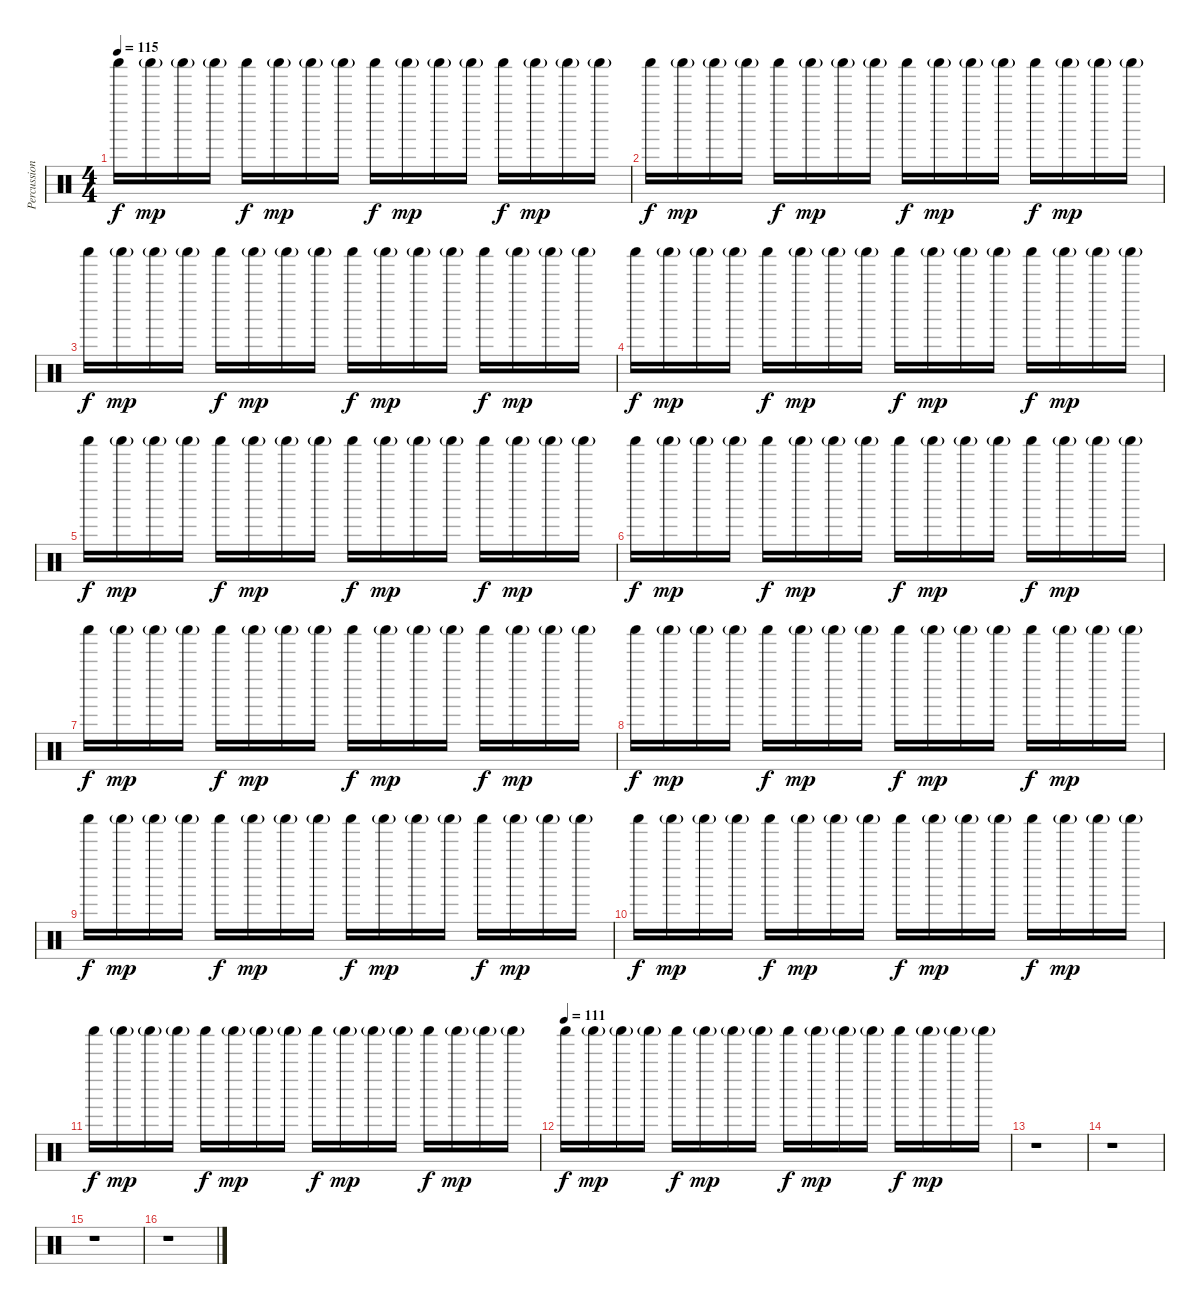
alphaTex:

\track ("PercussionShaker" "Percussion") {instrument percussion}
\staff {score}
\articulation defaults
\ts (4 4)
\tempo 115
\clef neutral
\ks c "Shaker (hit)".16{dy f} "Shaker (hit)"{g}.16{dy mp} "Shaker (hit)"{g}.16 "Shaker (hit)"{g}.16 "Shaker (hit)".16{dy f} "Shaker (hit)"{g}.16{dy mp} "Shaker (hit)"{g}.16 "Shaker (hit)"{g}.16 "Shaker (hit)".16{dy f} "Shaker (hit)"{g}.16{dy mp} "Shaker (hit)"{g}.16 "Shaker (hit)"{g}.16 "Shaker (hit)".16{dy f} "Shaker (hit)"{g}.16{dy mp} "Shaker (hit)"{g}.16 "Shaker (hit)"{g}.16
|
"Shaker (hit)".16{dy f} "Shaker (hit)"{g}.16{dy mp} "Shaker (hit)"{g}.16 "Shaker (hit)"{g}.16 "Shaker (hit)".16{dy f} "Shaker (hit)"{g}.16{dy mp} "Shaker (hit)"{g}.16 "Shaker (hit)"{g}.16 "Shaker (hit)".16{dy f} "Shaker (hit)"{g}.16{dy mp} "Shaker (hit)"{g}.16 "Shaker (hit)"{g}.16 "Shaker (hit)".16{dy f} "Shaker (hit)"{g}.16{dy mp} "Shaker (hit)"{g}.16 "Shaker (hit)"{g}.16 |
"Shaker (hit)".16{dy f} "Shaker (hit)"{g}.16{dy mp} "Shaker (hit)"{g}.16 "Shaker (hit)"{g}.16 "Shaker (hit)".16{dy f} "Shaker (hit)"{g}.16{dy mp} "Shaker (hit)"{g}.16 "Shaker (hit)"{g}.16 "Shaker (hit)".16{dy f} "Shaker (hit)"{g}.16{dy mp} "Shaker (hit)"{g}.16 "Shaker (hit)"{g}.16 "Shaker (hit)".16{dy f} "Shaker (hit)"{g}.16{dy mp} "Shaker (hit)"{g}.16 "Shaker (hit)"{g}.16 |
"Shaker (hit)".16{dy f} "Shaker (hit)"{g}.16{dy mp} "Shaker (hit)"{g}.16 "Shaker (hit)"{g}.16 "Shaker (hit)".16{dy f} "Shaker (hit)"{g}.16{dy mp} "Shaker (hit)"{g}.16 "Shaker (hit)"{g}.16 "Shaker (hit)".16{dy f} "Shaker (hit)"{g}.16{dy mp} "Shaker (hit)"{g}.16 "Shaker (hit)"{g}.16 "Shaker (hit)".16{dy f} "Shaker (hit)"{g}.16{dy mp} "Shaker (hit)"{g}.16 "Shaker (hit)"{g}.16 |
"Shaker (hit)".16{dy f} "Shaker (hit)"{g}.16{dy mp} "Shaker (hit)"{g}.16 "Shaker (hit)"{g}.16 "Shaker (hit)".16{dy f} "Shaker (hit)"{g}.16{dy mp} "Shaker (hit)"{g}.16 "Shaker (hit)"{g}.16 "Shaker (hit)".16{dy f} "Shaker (hit)"{g}.16{dy mp} "Shaker (hit)"{g}.16 "Shaker (hit)"{g}.16 "Shaker (hit)".16{dy f} "Shaker (hit)"{g}.16{dy mp} "Shaker (hit)"{g}.16 "Shaker (hit)"{g}.16 |
"Shaker (hit)".16{dy f} "Shaker (hit)"{g}.16{dy mp} "Shaker (hit)"{g}.16 "Shaker (hit)"{g}.16 "Shaker (hit)".16{dy f} "Shaker (hit)"{g}.16{dy mp} "Shaker (hit)"{g}.16 "Shaker (hit)"{g}.16 "Shaker (hit)".16{dy f} "Shaker (hit)"{g}.16{dy mp} "Shaker (hit)"{g}.16 "Shaker (hit)"{g}.16 "Shaker (hit)".16{dy f} "Shaker (hit)"{g}.16{dy mp} "Shaker (hit)"{g}.16 "Shaker (hit)"{g}.16 |
"Shaker (hit)".16{dy f} "Shaker (hit)"{g}.16{dy mp} "Shaker (hit)"{g}.16 "Shaker (hit)"{g}.16 "Shaker (hit)".16{dy f} "Shaker (hit)"{g}.16{dy mp} "Shaker (hit)"{g}.16 "Shaker (hit)"{g}.16 "Shaker (hit)".16{dy f} "Shaker (hit)"{g}.16{dy mp} "Shaker (hit)"{g}.16 "Shaker (hit)"{g}.16 "Shaker (hit)".16{dy f} "Shaker (hit)"{g}.16{dy mp} "Shaker (hit)"{g}.16 "Shaker (hit)"{g}.16 |
"Shaker (hit)".16{dy f} "Shaker (hit)"{g}.16{dy mp} "Shaker (hit)"{g}.16 "Shaker (hit)"{g}.16 "Shaker (hit)".16{dy f} "Shaker (hit)"{g}.16{dy mp} "Shaker (hit)"{g}.16 "Shaker (hit)"{g}.16 "Shaker (hit)".16{dy f} "Shaker (hit)"{g}.16{dy mp} "Shaker (hit)"{g}.16 "Shaker (hit)"{g}.16 "Shaker (hit)".16{dy f} "Shaker (hit)"{g}.16{dy mp} "Shaker (hit)"{g}.16 "Shaker (hit)"{g}.16 |
"Shaker (hit)".16{dy f} "Shaker (hit)"{g}.16{dy mp} "Shaker (hit)"{g}.16 "Shaker (hit)"{g}.16 "Shaker (hit)".16{dy f} "Shaker (hit)"{g}.16{dy mp} "Shaker (hit)"{g}.16 "Shaker (hit)"{g}.16 "Shaker (hit)".16{dy f} "Shaker (hit)"{g}.16{dy mp} "Shaker (hit)"{g}.16 "Shaker (hit)"{g}.16 "Shaker (hit)".16{dy f} "Shaker (hit)"{g}.16{dy mp} "Shaker (hit)"{g}.16 "Shaker (hit)"{g}.16 |
"Shaker (hit)".16{dy f} "Shaker (hit)"{g}.16{dy mp} "Shaker (hit)"{g}.16 "Shaker (hit)"{g}.16 "Shaker (hit)".16{dy f} "Shaker (hit)"{g}.16{dy mp} "Shaker (hit)"{g}.16 "Shaker (hit)"{g}.16 "Shaker (hit)".16{dy f} "Shaker (hit)"{g}.16{dy mp} "Shaker (hit)"{g}.16 "Shaker (hit)"{g}.16 "Shaker (hit)".16{dy f} "Shaker (hit)"{g}.16{dy mp} "Shaker (hit)"{g}.16 "Shaker (hit)"{g}.16 |
"Shaker (hit)".16{dy f} "Shaker (hit)"{g}.16{dy mp} "Shaker (hit)"{g}.16 "Shaker (hit)"{g}.16 "Shaker (hit)".16{dy f} "Shaker (hit)"{g}.16{dy mp} "Shaker (hit)"{g}.16 "Shaker (hit)"{g}.16 "Shaker (hit)".16{dy f} "Shaker (hit)"{g}.16{dy mp} "Shaker (hit)"{g}.16 "Shaker (hit)"{g}.16 "Shaker (hit)".16{dy f} "Shaker (hit)"{g}.16{dy mp} "Shaker (hit)"{g}.16 "Shaker (hit)"{g}.16 |
\tempo (111)
"Shaker (hit)".16{dy f} "Shaker (hit)"{g}.16{dy mp} "Shaker (hit)"{g}.16 "Shaker (hit)"{g}.16 "Shaker (hit)".16{dy f} "Shaker (hit)"{g}.16{dy mp} "Shaker (hit)"{g}.16 "Shaker (hit)"{g}.16 "Shaker (hit)".16{dy f} "Shaker (hit)"{g}.16{dy mp} "Shaker (hit)"{g}.16 "Shaker (hit)"{g}.16 "Shaker (hit)".16{dy f} "Shaker (hit)"{g}.16{dy mp} "Shaker (hit)"{g}.16 "Shaker (hit)"{g}.16 |
r.1 |
r.1 |
r.1 |
r.1
